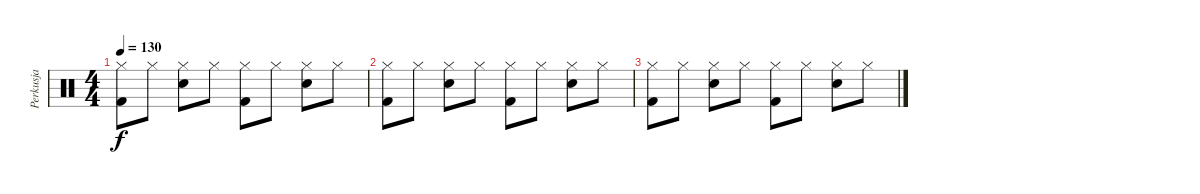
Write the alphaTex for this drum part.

\track ("Perkusja" "Perkusja") {instrument percussion}
\staff {score}
\articulation defaults
\ts (4 4)
\tempo 130
\clef neutral
\ks c
("Kick (hit) 2" "Hi-Hat (closed)").8{dy f} "Hi-Hat (closed)".8 ("Snare (hit) 2" "Hi-Hat (closed)").8 "Hi-Hat (closed)".8 ("Kick (hit) 2" "Hi-Hat (closed)").8 "Hi-Hat (closed)".8 ("Snare (hit) 2" "Hi-Hat (closed)").8 "Hi-Hat (closed)".8 |
("Kick (hit) 2" "Hi-Hat (closed)").8 "Hi-Hat (closed)".8 ("Snare (hit) 2" "Hi-Hat (closed)").8 "Hi-Hat (closed)".8 ("Kick (hit) 2" "Hi-Hat (closed)").8 "Hi-Hat (closed)".8 ("Snare (hit) 2" "Hi-Hat (closed)").8 "Hi-Hat (closed)".8 |
("Kick (hit) 2" "Hi-Hat (closed)").8 "Hi-Hat (closed)".8 ("Snare (hit) 2" "Hi-Hat (closed)").8 "Hi-Hat (closed)".8 ("Kick (hit) 2" "Hi-Hat (closed)").8 "Hi-Hat (closed)".8 ("Snare (hit) 2" "Hi-Hat (closed)").8 "Hi-Hat (closed)".8
